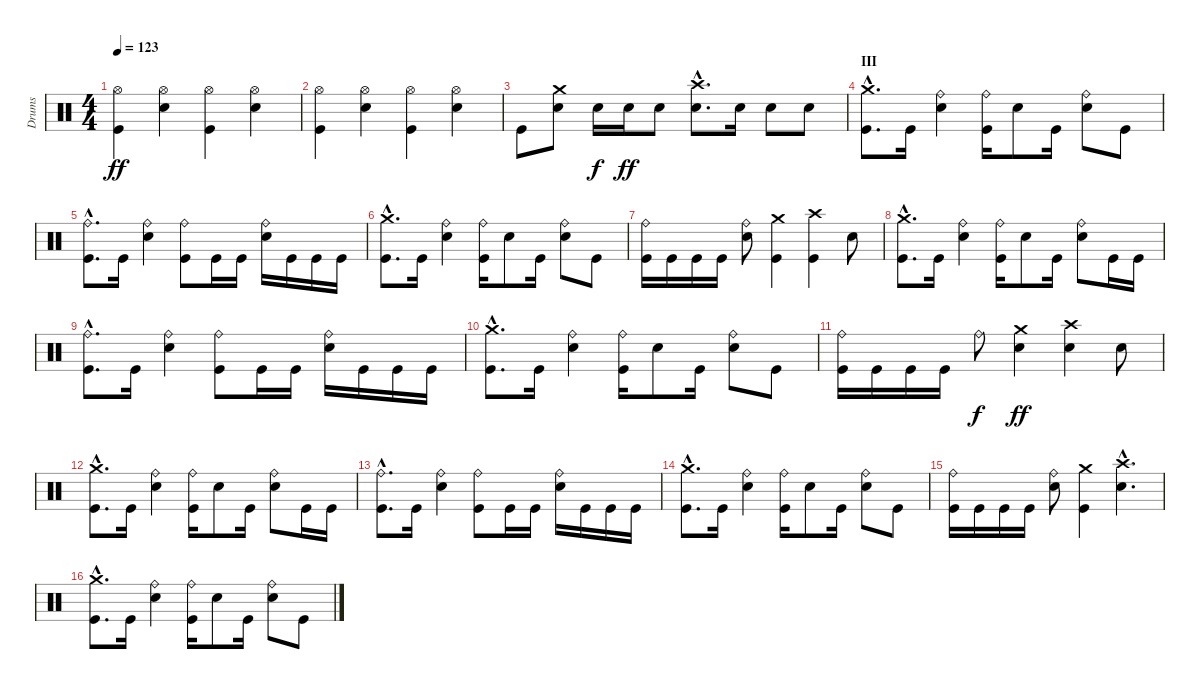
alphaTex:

\track ("Drums" "Drums") {instrument percussion}
\staff {score}
\articulation defaults
\ts (4 4)
\tempo 123
\clef neutral
\ks c
("Hi-Hat (open)" "Kick (hit)").4{dy ff} ("Hi-Hat (open)" "Electric Snare (hit)").4 ("Hi-Hat (open)" "Kick (hit)").4 ("Hi-Hat (open)" "Electric Snare (hit)").4 |
("Hi-Hat (open)" "Kick (hit)").4 ("Hi-Hat (open)" "Electric Snare (hit)").4 ("Hi-Hat (open)" "Kick (hit)").4 ("Hi-Hat (open)" "Electric Snare (hit)").4 |
"Kick (hit)".8 ("Crash medium (hit)" "Electric Snare (hit)").8 "Electric Snare (hit)".16{dy f} "Electric Snare (hit)".16{dy ff} "Electric Snare (hit)".8 ("Crash high (hit)"{hac} "Electric Snare (hit)"{hac}).8{d} "Electric Snare (hit)".16 "Electric Snare (hit)".8 "Electric Snare (hit)".8 |
\section ("" "Ⅲ")
("Crash medium (hit)"{hac} "Kick (hit)"{hac}).8{d} "Kick (hit)".16 ("Ride (bell)" "Electric Snare (hit)").4 ("Ride (bell)" "Kick (hit)").16 "Electric Snare (hit)".8 "Kick (hit)".16 ("Ride (bell)" "Electric Snare (hit)").8 "Kick (hit)".8 |
("Ride (bell)"{hac} "Kick (hit)"{hac}).8{d} "Kick (hit)".16 ("Ride (bell)" "Electric Snare (hit)").4 ("Ride (bell)" "Kick (hit)").8 "Kick (hit)".16 "Kick (hit)".16 ("Ride (bell)" "Electric Snare (hit)").16 "Kick (hit)".16 "Kick (hit)".16 "Kick (hit)".16 |
("Crash medium (hit)"{hac} "Kick (hit)"{hac}).8{d} "Kick (hit)".16 ("Ride (bell)" "Electric Snare (hit)").4 ("Ride (bell)" "Kick (hit)").16 "Electric Snare (hit)".8 "Kick (hit)".16 ("Ride (bell)" "Electric Snare (hit)").8 "Kick (hit)".8 |
("Ride (bell)" "Kick (hit)").16 "Kick (hit)".16 "Kick (hit)".16 "Kick (hit)".16 ("Ride (bell)" "Electric Snare (hit)").8 ("Crash medium (hit)" "Kick (hit)").4 ("Crash high (hit)" "Kick (hit)").4 "Electric Snare (hit)".8 |
("Crash medium (hit)"{hac} "Kick (hit)"{hac}).8{d} "Kick (hit)".16 ("Ride (bell)" "Electric Snare (hit)").4 ("Ride (bell)" "Kick (hit)").16 "Electric Snare (hit)".8 "Kick (hit)".16 ("Ride (bell)" "Electric Snare (hit)").8 "Kick (hit)".16 "Kick (hit)".16 |
("Ride (bell)"{hac} "Kick (hit)"{hac}).8{d} "Kick (hit)".16 ("Ride (bell)" "Electric Snare (hit)").4 ("Ride (bell)" "Kick (hit)").8 "Kick (hit)".16 "Kick (hit)".16 ("Ride (bell)" "Electric Snare (hit)").16 "Kick (hit)".16 "Kick (hit)".16 "Kick (hit)".16 |
("Crash medium (hit)"{hac} "Kick (hit)"{hac}).8{d} "Kick (hit)".16 ("Ride (bell)" "Electric Snare (hit)").4 ("Ride (bell)" "Kick (hit)").16 "Electric Snare (hit)".8 "Kick (hit)".16 ("Ride (bell)" "Electric Snare (hit)").8 "Kick (hit)".8 |
("Ride (bell)" "Kick (hit)").16 "Kick (hit)".16 "Kick (hit)".16 "Kick (hit)".16 "Ride (bell)".8{dy f} ("Crash medium (hit)" "Electric Snare (hit)").4{dy ff} ("Crash high (hit)" "Electric Snare (hit)").4 "Electric Snare (hit)".8 |
("Crash medium (hit)"{hac} "Kick (hit)"{hac}).8{d} "Kick (hit)".16 ("Ride (bell)" "Electric Snare (hit)").4 ("Ride (bell)" "Kick (hit)").16 "Electric Snare (hit)".8 "Kick (hit)".16 ("Ride (bell)" "Electric Snare (hit)").8 "Kick (hit)".16 "Kick (hit)".16 |
("Ride (bell)"{hac} "Kick (hit)"{hac}).8{d} "Kick (hit)".16 ("Ride (bell)" "Electric Snare (hit)").4 ("Ride (bell)" "Kick (hit)").8 "Kick (hit)".16 "Kick (hit)".16 ("Ride (bell)" "Electric Snare (hit)").16 "Kick (hit)".16 "Kick (hit)".16 "Kick (hit)".16 |
("Crash medium (hit)"{hac} "Kick (hit)"{hac}).8{d} "Kick (hit)".16 ("Ride (bell)" "Electric Snare (hit)").4 ("Ride (bell)" "Kick (hit)").16 "Electric Snare (hit)".8 "Kick (hit)".16 ("Ride (bell)" "Electric Snare (hit)").8 "Kick (hit)".8 |
("Ride (bell)" "Kick (hit)").16 "Kick (hit)".16 "Kick (hit)".16 "Kick (hit)".16 ("Ride (bell)" "Electric Snare (hit)").8 ("Crash medium (hit)" "Kick (hit)").4 ("Crash high (hit)"{hac} "Electric Snare (hit)"{hac}).4{d} |
("Crash medium (hit)"{hac} "Kick (hit)"{hac}).8{d} "Kick (hit)".16 ("Ride (bell)" "Electric Snare (hit)").4 ("Ride (bell)" "Kick (hit)").16 "Electric Snare (hit)".8 "Kick (hit)".16 ("Ride (bell)" "Electric Snare (hit)").8 "Kick (hit)".8
